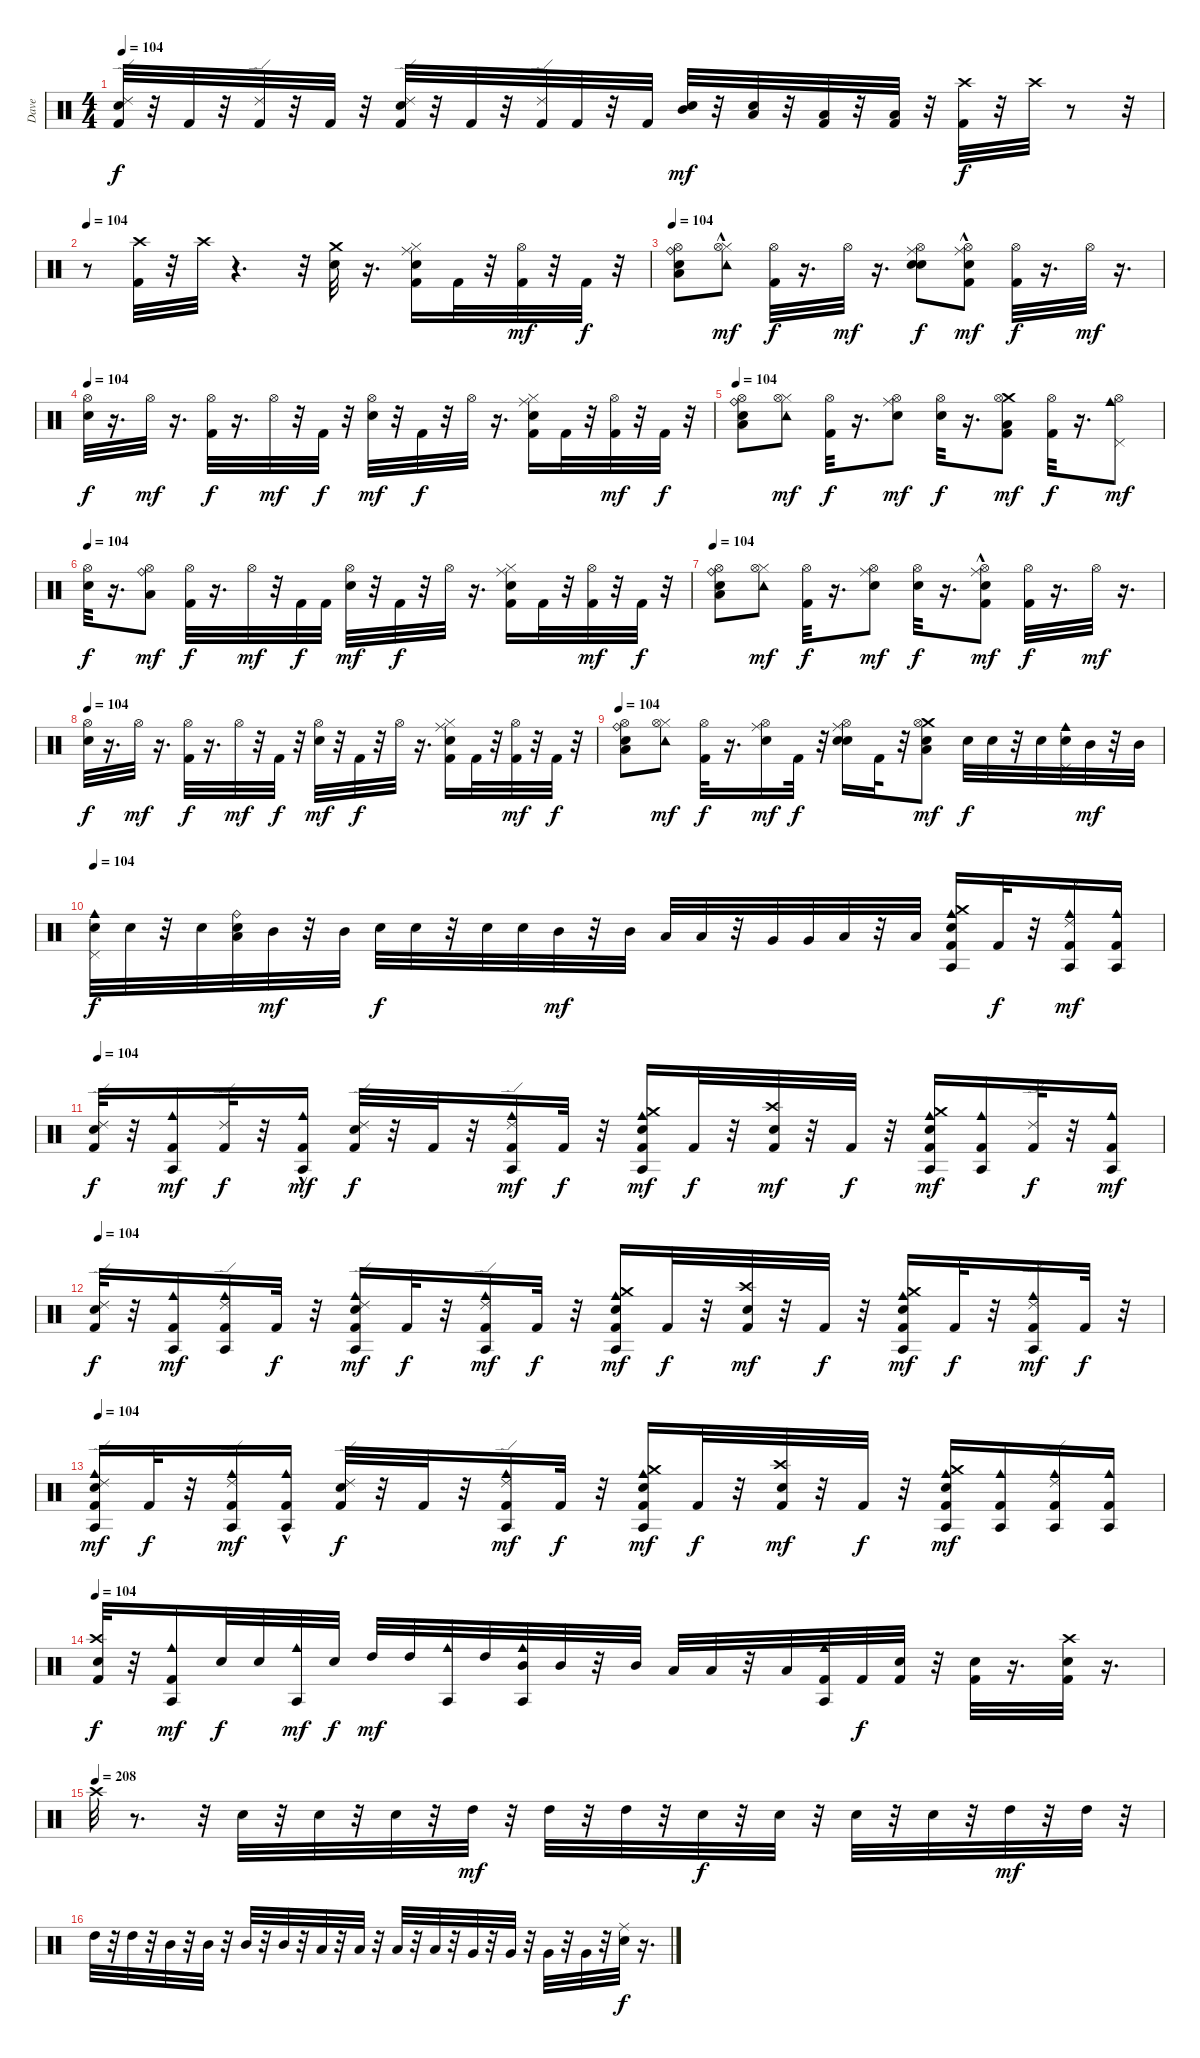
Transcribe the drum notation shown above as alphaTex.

\track ("Dave" "Dave") {instrument percussion}
\staff {score}
\articulation defaults
\ts (4 4)
\tempo 104
\clef neutral
\ks c
("Kick (hit) 2" "Snare (hit) 2" "Ride (edge) 2").32{dy f} r.32 "Kick (hit) 2".32 r.32 ("Kick (hit) 2" "Ride (edge) 2").32 r.32 "Kick (hit) 2".32 r.32 ("Kick (hit) 2" "Snare (hit) 2" "Ride (edge) 2").32 r.32 "Kick (hit) 2".32 r.32 ("Kick (hit) 2" "Ride (edge) 2").32 "Kick (hit) 2".32 r.32 "Kick (hit) 2".32 ("Snare (hit) 2" "Mid Tom (hit)").32{dy mf} r.32 ("Snare (hit) 2" "Low Tom (hit)").32 r.32 ("Kick (hit) 2" "Low Floor Tom (hit)").32 r.32 ("Kick (hit) 2" "Low Floor Tom (hit)").32 r.32 ("Kick (hit) 2" "Crash high (hit)").32{dy f} r.32 "Crash high (hit)".32 r.8 r.32 |
\tempo 104
r.8 ("Kick (hit) 2" "Crash high (hit)").32 r.32 "Crash high (hit)".32 r.4{d} r.32 ("Snare (hit) 2" "Crash medium (hit)").32 r.16{d} ("Hand Clap (hit)" "Ride (middle)" "Kick (hit) 2" "Hi-Hat (closed)").16 "Kick (hit) 2".32 r.32 ("Kick (hit) 2" "Hi-Hat (open)").32{dy mf} r.32 "Kick (hit) 2".32{dy f} r.32 |
\tempo 104
("Low Floor Tom (hit)" "Ride (bell)" "Snare (hit) 2" "Hi-Hat (open)").8 ("Hi-Hat (closed)"{hac} "Tambourine (hit)"{hac} "Hi-Hat (open)").8{dy mf} ("Kick (hit) 2" "Hi-Hat (open)").32{dy f} r.16{d} "Hi-Hat (open)".32{dy mf} r.16{d} ("Hand Clap (hit)" "Ride (middle)" "Snare (hit) 2" "Hi-Hat (open)").8{dy f} ("Hand Clap (hit)"{hac} "Ride (middle)"{hac} "Kick (hit) 2" "Hi-Hat (open)").8{dy mf} ("Kick (hit) 2" "Hi-Hat (open)").32{dy f} r.16{d} "Hi-Hat (open)".32{dy mf} r.16{d} |
\tempo 104
("Snare (hit) 2" "Hi-Hat (open)").32{dy f} r.16{d} "Hi-Hat (open)".32{dy mf} r.16{d} ("Kick (hit) 2" "Hi-Hat (open)").32{dy f} r.16{d} "Hi-Hat (open)".32{dy mf} r.32 "Kick (hit) 2".32{dy f} r.32 ("Snare (hit) 2" "Hi-Hat (open)").32{dy mf} r.32 "Kick (hit) 2".32{dy f} r.32 "Hi-Hat (open)".32 r.16{d} ("Hand Clap (hit)" "Ride (middle)" "Kick (hit) 2" "Hi-Hat (closed)").16 "Kick (hit) 2".32 r.32 ("Kick (hit) 2" "Hi-Hat (open)").32{dy mf} r.32 "Kick (hit) 2".32{dy f} r.32 |
\tempo 104
("Low Floor Tom (hit)" "Ride (bell)" "Snare (hit) 2" "Hi-Hat (open)").8 ("Hi-Hat (closed)" "Tambourine (hit)" "Hi-Hat (open)").8{dy mf} ("Kick (hit) 2" "Hi-Hat (open)").32{dy f} r.16{d} ("Hand Clap (hit)" "Ride (middle)" "Hi-Hat (open)").8{dy mf} ("Snare (hit) 2" "Hi-Hat (open)").32{dy f} r.16{d} ("Low Tom (hit)" "Crash medium (hit)" "Kick (hit) 2" "Hi-Hat (open)").8{dy mf} ("Kick (hit) 2" "Hi-Hat (open)").32{dy f} r.16{d} ("Pedal Hi-Hat (hit)" "Cowbell medium (hit)" "Hi-Hat (open)").8{dy mf} |
\tempo 104
("Snare (hit) 2" "Hi-Hat (open)").32{dy f} r.16{d} ("Low Floor Tom (hit)" "Ride (bell)" "Hi-Hat (open)").8{dy mf} ("Kick (hit) 2" "Hi-Hat (open)").32{dy f} r.16{d} "Hi-Hat (open)".32{dy mf} r.32 "Kick (hit) 2".32{dy f} "Kick (hit) 2".32 ("Snare (hit) 2" "Hi-Hat (open)").32{dy mf} r.32 "Kick (hit) 2".32{dy f} r.32 "Hi-Hat (open)".32 r.16{d} ("Hand Clap (hit)" "Ride (middle)" "Kick (hit) 2" "Hi-Hat (closed)").16 "Kick (hit) 2".32 r.32 ("Kick (hit) 2" "Hi-Hat (open)").32{dy mf} r.32 "Kick (hit) 2".32{dy f} r.32 |
\tempo 104
("Low Floor Tom (hit)" "Ride (bell)" "Snare (hit) 2" "Hi-Hat (open)").8 ("Hi-Hat (closed)" "Tambourine (hit)" "Hi-Hat (open)").8{dy mf} ("Kick (hit) 2" "Hi-Hat (open)").32{dy f} r.16{d} ("Hand Clap (hit)" "Ride (middle)" "Hi-Hat (open)").8{dy mf} ("Snare (hit) 2" "Hi-Hat (open)").32{dy f} r.16{d} ("Hand Clap (hit)"{hac} "Ride (middle)"{hac} "Kick (hit) 2" "Hi-Hat (open)").8{dy mf} ("Kick (hit) 2" "Hi-Hat (open)").32{dy f} r.16{d} "Hi-Hat (open)".32{dy mf} r.16{d} |
\tempo 104
("Snare (hit) 2" "Hi-Hat (open)").32{dy f} r.16{d} "Hi-Hat (open)".32{dy mf} r.16{d} ("Kick (hit) 2" "Hi-Hat (open)").32{dy f} r.16{d} "Hi-Hat (open)".32{dy mf} r.32 "Kick (hit) 2".32{dy f} r.32 ("Snare (hit) 2" "Hi-Hat (open)").32{dy mf} r.32 "Kick (hit) 2".32{dy f} r.32 "Hi-Hat (open)".32 r.16{d} ("Hand Clap (hit)" "Ride (middle)" "Kick (hit) 2" "Hi-Hat (closed)").16 "Kick (hit) 2".32 r.32 ("Kick (hit) 2" "Hi-Hat (open)").32{dy mf} r.32 "Kick (hit) 2".32{dy f} r.32 |
\tempo 104
("Low Floor Tom (hit)" "Ride (bell)" "Snare (hit) 2" "Hi-Hat (open)").8 ("Hi-Hat (closed)" "Tambourine (hit)" "Hi-Hat (open)").8{dy mf} ("Kick (hit) 2" "Hi-Hat (open)").32{dy f} r.16{d} ("Hand Clap (hit)" "Ride (middle)" "Hi-Hat (open)").16{dy mf} "Kick (hit) 2".32{dy f} r.32 ("Hand Clap (hit)" "Ride (middle)" "Snare (hit) 2" "Hi-Hat (open)").16 "Kick (hit) 2".32 r.32 ("Low Tom (hit)" "Crash medium (hit)" "Snare (hit) 2" "Hi-Hat (open)").8{dy mf} "Snare (hit) 2".32{dy f} "Snare (hit) 2".32 r.32 "Snare (hit) 2".32 ("Pedal Hi-Hat (hit)" "Cowbell medium (hit)" "Snare (hit) 2").32 "Mid Tom (hit)".32{dy mf} r.32 "Mid Tom (hit)".32 |
\tempo 104
("Pedal Hi-Hat (hit)" "Cowbell medium (hit)" "Snare (hit) 2").32{dy f} "Snare (hit) 2".32 r.32 "Snare (hit) 2".32 ("Low Floor Tom (hit)" "Ride (bell)" "Snare (hit) 2").32 "Mid Tom (hit)".32{dy mf} r.32 "Mid Tom (hit)".32 "Snare (hit) 2".32{dy f} "Snare (hit) 2".32 r.32 "Snare (hit) 2".32 "Snare (hit) 2".32 "Mid Tom (hit)".32{dy mf} r.32 "Mid Tom (hit)".32 "Low Tom (hit)".32 "Low Tom (hit)".32 r.32 "Very Low Tom (hit)".32 "Very Low Tom (hit)".32 "Low Floor Tom (hit)".32 r.32 "Low Floor Tom (hit)".32 ("Cowbell medium (hit)" "Agogo tow (hit)" "Kick (hit) 2" "Snare (hit) 2" "Crash medium (hit)").16 "Kick (hit) 2".32{dy f} r.32 ("Cowbell medium (hit)" "Agogo tow (hit)" "Kick (hit) 2" "Ride (edge) 2").16{dy mf} ("Cowbell medium (hit)" "Agogo tow (hit)" "Kick (hit) 2").16 |
\tempo 104
("Kick (hit) 2" "Snare (hit) 2" "Ride (edge) 2").32{dy f} r.32 ("Cowbell medium (hit)" "Agogo tow (hit)" "Kick (hit) 2").16{dy mf} ("Kick (hit) 2" "Ride (edge) 2").32{dy f} r.32 ("Cowbell medium (hit)"{hac} "Agogo tow (hit)"{hac} "Kick (hit) 2").16{dy mf} ("Kick (hit) 2" "Snare (hit) 2" "Ride (edge) 2").32{dy f} r.32 "Kick (hit) 2".32 r.32 ("Cowbell medium (hit)" "Agogo tow (hit)" "Kick (hit) 2" "Ride (edge) 2").16{dy mf} "Kick (hit) 2".32{dy f} r.32 ("Cowbell medium (hit)" "Agogo tow (hit)" "Kick (hit) 2" "Snare (hit) 2" "Crash medium (hit)").16{dy mf} "Kick (hit) 2".32{dy f} r.32 ("Kick (hit) 2" "Snare (hit) 2" "Crash high (hit)").32{dy mf} r.32 "Kick (hit) 2".32{dy f} r.32 ("Cowbell medium (hit)" "Agogo tow (hit)" "Kick (hit) 2" "Snare (hit) 2" "Crash medium (hit)").16{dy mf} ("Cowbell medium (hit)" "Agogo tow (hit)" "Kick (hit) 2").16 ("Kick (hit) 2" "Ride (edge) 2").32{dy f} r.32 ("Cowbell medium (hit)" "Agogo tow (hit)" "Kick (hit) 2").16{dy mf} |
\tempo 104
("Kick (hit) 2" "Snare (hit) 2" "Ride (edge) 2").32{dy f} r.32 ("Cowbell medium (hit)" "Agogo tow (hit)" "Kick (hit) 2").16{dy mf} ("Cowbell medium (hit)" "Agogo tow (hit)" "Kick (hit) 2" "Ride (edge) 2").16 "Kick (hit) 2".32{dy f} r.32 ("Cowbell medium (hit)" "Agogo tow (hit)" "Kick (hit) 2" "Snare (hit) 2" "Ride (edge) 2").16{dy mf} "Kick (hit) 2".32{dy f} r.32 ("Cowbell medium (hit)" "Agogo tow (hit)" "Kick (hit) 2" "Ride (edge) 2").16{dy mf} "Kick (hit) 2".32{dy f} r.32 ("Cowbell medium (hit)" "Agogo tow (hit)" "Kick (hit) 2" "Snare (hit) 2" "Crash medium (hit)").16{dy mf} "Kick (hit) 2".32{dy f} r.32 ("Kick (hit) 2" "Snare (hit) 2" "Crash high (hit)").32{dy mf} r.32 "Kick (hit) 2".32{dy f} r.32 ("Cowbell medium (hit)" "Agogo tow (hit)" "Kick (hit) 2" "Snare (hit) 2" "Crash medium (hit)").16{dy mf} "Kick (hit) 2".32{dy f} r.32 ("Cowbell medium (hit)" "Agogo tow (hit)" "Kick (hit) 2" "Ride (edge) 2").16{dy mf} "Kick (hit) 2".32{dy f} r.32 |
\tempo 104
("Cowbell medium (hit)" "Agogo tow (hit)" "Kick (hit) 2" "Snare (hit) 2" "Ride (edge) 2").16{dy mf} "Kick (hit) 2".32{dy f} r.32 ("Cowbell medium (hit)" "Agogo tow (hit)" "Kick (hit) 2" "Ride (edge) 2").16{dy mf} ("Cowbell medium (hit)"{hac} "Agogo tow (hit)"{hac} "Kick (hit) 2").16 ("Kick (hit) 2" "Snare (hit) 2" "Ride (edge) 2").32{dy f} r.32 "Kick (hit) 2".32 r.32 ("Cowbell medium (hit)" "Agogo tow (hit)" "Kick (hit) 2" "Ride (edge) 2").16{dy mf} "Kick (hit) 2".32{dy f} r.32 ("Cowbell medium (hit)" "Agogo tow (hit)" "Kick (hit) 2" "Snare (hit) 2" "Crash medium (hit)").16{dy mf} "Kick (hit) 2".32{dy f} r.32 ("Kick (hit) 2" "Snare (hit) 2" "Crash high (hit)").32{dy mf} r.32 "Kick (hit) 2".32{dy f} r.32 ("Cowbell medium (hit)" "Agogo tow (hit)" "Kick (hit) 2" "Snare (hit) 2" "Crash medium (hit)").16{dy mf} ("Cowbell medium (hit)" "Agogo tow (hit)" "Kick (hit) 2").16 ("Cowbell medium (hit)" "Agogo tow (hit)" "Kick (hit) 2" "Ride (edge) 2").16 ("Cowbell medium (hit)" "Agogo tow (hit)" "Kick (hit) 2").16 |
\tempo 104
("Kick (hit) 2" "Snare (hit) 2" "Crash high (hit)").32{dy f} r.32 ("Cowbell medium (hit)" "Agogo tow (hit)" "Kick (hit) 2").16{dy mf} "Snare (hit) 2".32{dy f} "Snare (hit) 2".32 ("Cowbell medium (hit)" "Agogo tow (hit)").32{dy mf} "Snare (hit) 2".32{dy f} "High Tom (hit)".32{dy mf} "High Tom (hit)".32 ("Cowbell medium (hit)" "Agogo tow (hit)").32 "High Tom (hit)".32 ("Cowbell medium (hit)" "Agogo tow (hit)" "Mid Tom (hit)").32 "Mid Tom (hit)".32 r.32 "Mid Tom (hit)".32 "Low Tom (hit)".32 "Low Tom (hit)".32 r.32 "Low Tom (hit)".32 ("Cowbell medium (hit)" "Agogo tow (hit)" "Kick (hit) 2").32 "Kick (hit) 2".32{dy f} ("Kick (hit) 2" "Snare (hit) 2").32 r.32 ("Kick (hit) 2" "Snare (hit) 2").32 r.16{d} ("Kick (hit) 2" "Snare (hit) 2" "Crash high (hit)").32 r.16{d} |
\tempo (208)
"Crash high (hit)".32 r.8{d} r.32 "Snare (hit) 2".32 r.32 "Snare (hit) 2".32 r.32 "Snare (hit) 2".32 r.32 "High Tom (hit)".32{dy mf} r.32 "High Tom (hit)".32 r.32 "High Tom (hit)".32 r.32 "Snare (hit) 2".32{dy f} r.32 "Snare (hit) 2".32 r.32 "Snare (hit) 2".32 r.32 "Snare (hit) 2".32 r.32 "High Tom (hit)".32{dy mf} r.32 "High Tom (hit)".32 r.32 |
"High Tom (hit)".32 r.32 "High Tom (hit)".32 r.32 "Mid Tom (hit)".32 r.32 "Mid Tom (hit)".32 r.32 "Mid Tom (hit)".32 r.32 "Mid Tom (hit)".32 r.32 "Low Tom (hit)".32 r.32 "Low Tom (hit)".32 r.32 "Low Tom (hit)".32 r.32 "Low Tom (hit)".32 r.32 "Very Low Tom (hit)".32 r.32 "Very Low Tom (hit)".32 r.32 "Very Low Tom (hit)".32 r.32 "Very Low Tom (hit)".32 r.32 ("Snare (hit) 2" "Ride (middle)").32{dy f} r.16{d}
